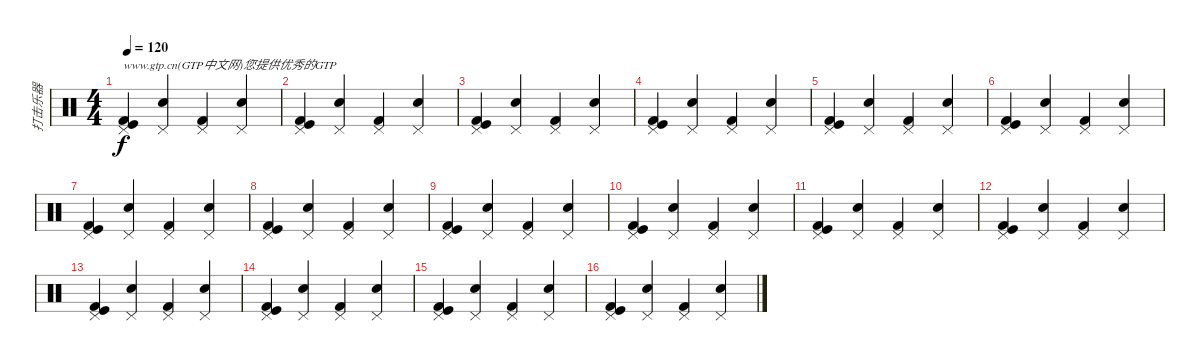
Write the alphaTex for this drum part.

\track ("打击乐器" "打击乐器") {instrument percussion}
\staff {score}
\articulation defaults
\ts (4 4)
\tempo 120
\clef neutral
\ks c
("Kick (hit) 2" "Kick (hit)" "Pedal Hi-Hat (hit)").4{txt "www.gtp.cn(GTP中文网)您提供优秀的GTP" dy f} ("Pedal Hi-Hat (hit)" "Electric Snare (hit)").4 ("Kick (hit) 2" "Pedal Hi-Hat (hit)").4 ("Pedal Hi-Hat (hit)" "Electric Snare (hit)").4 |
("Kick (hit) 2" "Kick (hit)" "Pedal Hi-Hat (hit)").4 ("Pedal Hi-Hat (hit)" "Electric Snare (hit)").4 ("Kick (hit) 2" "Pedal Hi-Hat (hit)").4 ("Pedal Hi-Hat (hit)" "Electric Snare (hit)").4 |
("Kick (hit) 2" "Kick (hit)" "Pedal Hi-Hat (hit)").4 ("Pedal Hi-Hat (hit)" "Electric Snare (hit)").4 ("Kick (hit) 2" "Pedal Hi-Hat (hit)").4 ("Pedal Hi-Hat (hit)" "Electric Snare (hit)").4 |
("Kick (hit) 2" "Kick (hit)" "Pedal Hi-Hat (hit)").4 ("Pedal Hi-Hat (hit)" "Electric Snare (hit)").4 ("Kick (hit) 2" "Pedal Hi-Hat (hit)").4 ("Pedal Hi-Hat (hit)" "Electric Snare (hit)").4 |
("Kick (hit) 2" "Kick (hit)" "Pedal Hi-Hat (hit)").4 ("Pedal Hi-Hat (hit)" "Electric Snare (hit)").4 ("Kick (hit) 2" "Pedal Hi-Hat (hit)").4 ("Pedal Hi-Hat (hit)" "Electric Snare (hit)").4 |
("Kick (hit) 2" "Kick (hit)" "Pedal Hi-Hat (hit)").4 ("Pedal Hi-Hat (hit)" "Electric Snare (hit)").4 ("Kick (hit) 2" "Pedal Hi-Hat (hit)").4 ("Pedal Hi-Hat (hit)" "Electric Snare (hit)").4 |
("Kick (hit) 2" "Kick (hit)" "Pedal Hi-Hat (hit)").4 ("Pedal Hi-Hat (hit)" "Electric Snare (hit)").4 ("Kick (hit) 2" "Pedal Hi-Hat (hit)").4 ("Pedal Hi-Hat (hit)" "Electric Snare (hit)").4 |
("Kick (hit) 2" "Kick (hit)" "Pedal Hi-Hat (hit)").4 ("Pedal Hi-Hat (hit)" "Electric Snare (hit)").4 ("Kick (hit) 2" "Pedal Hi-Hat (hit)").4 ("Pedal Hi-Hat (hit)" "Electric Snare (hit)").4 |
("Kick (hit) 2" "Kick (hit)" "Pedal Hi-Hat (hit)").4 ("Pedal Hi-Hat (hit)" "Electric Snare (hit)").4 ("Kick (hit) 2" "Pedal Hi-Hat (hit)").4 ("Pedal Hi-Hat (hit)" "Electric Snare (hit)").4 |
("Kick (hit) 2" "Kick (hit)" "Pedal Hi-Hat (hit)").4 ("Pedal Hi-Hat (hit)" "Electric Snare (hit)").4 ("Kick (hit) 2" "Pedal Hi-Hat (hit)").4 ("Pedal Hi-Hat (hit)" "Electric Snare (hit)").4 |
("Kick (hit) 2" "Kick (hit)" "Pedal Hi-Hat (hit)").4 ("Pedal Hi-Hat (hit)" "Electric Snare (hit)").4 ("Kick (hit) 2" "Pedal Hi-Hat (hit)").4 ("Pedal Hi-Hat (hit)" "Electric Snare (hit)").4 |
("Kick (hit) 2" "Kick (hit)" "Pedal Hi-Hat (hit)").4 ("Pedal Hi-Hat (hit)" "Electric Snare (hit)").4 ("Kick (hit) 2" "Pedal Hi-Hat (hit)").4 ("Pedal Hi-Hat (hit)" "Electric Snare (hit)").4 |
("Kick (hit) 2" "Kick (hit)" "Pedal Hi-Hat (hit)").4 ("Pedal Hi-Hat (hit)" "Electric Snare (hit)").4 ("Kick (hit) 2" "Pedal Hi-Hat (hit)").4 ("Pedal Hi-Hat (hit)" "Electric Snare (hit)").4 |
("Kick (hit) 2" "Kick (hit)" "Pedal Hi-Hat (hit)").4 ("Pedal Hi-Hat (hit)" "Electric Snare (hit)").4 ("Kick (hit) 2" "Pedal Hi-Hat (hit)").4 ("Pedal Hi-Hat (hit)" "Electric Snare (hit)").4 |
("Kick (hit) 2" "Kick (hit)" "Pedal Hi-Hat (hit)").4 ("Pedal Hi-Hat (hit)" "Electric Snare (hit)").4 ("Kick (hit) 2" "Pedal Hi-Hat (hit)").4 ("Pedal Hi-Hat (hit)" "Electric Snare (hit)").4 |
("Kick (hit) 2" "Kick (hit)" "Pedal Hi-Hat (hit)").4 ("Pedal Hi-Hat (hit)" "Electric Snare (hit)").4 ("Kick (hit) 2" "Pedal Hi-Hat (hit)").4 ("Pedal Hi-Hat (hit)" "Electric Snare (hit)").4
